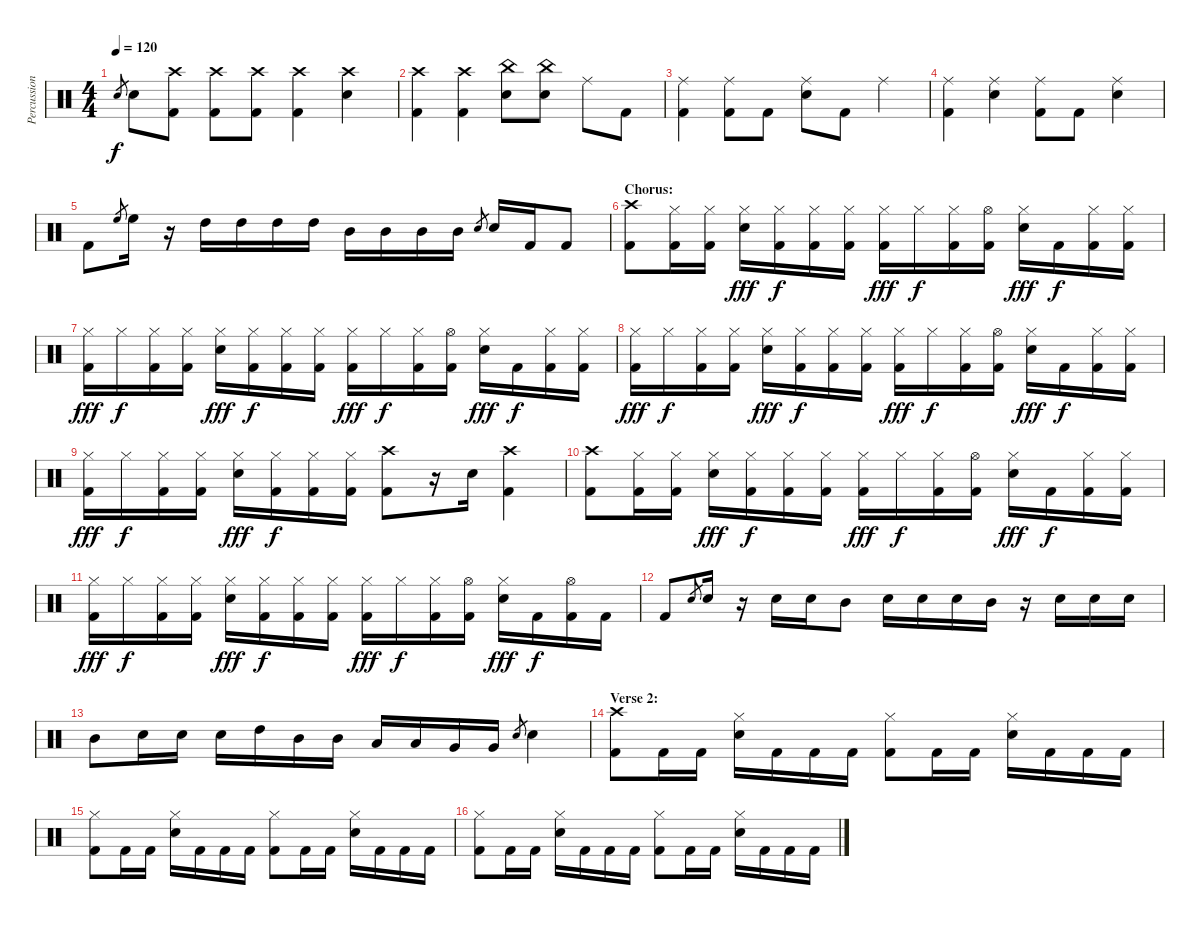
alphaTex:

\track ("Percussion" "Percussion") {instrument percussion}
\staff {score}
\articulation defaults
\ts (4 4)
\tempo 120
\clef neutral
\ks c "Electric Snare (hit)".8{gr dy f} "Electric Snare (hit)".8
("Crash high (hit)" "Kick (hit) 2").8 ("Crash high (hit)" "Kick (hit) 2").8 ("Crash high (hit)" "Kick (hit) 2").8 ("Crash high (hit)" "Kick (hit) 2").4 ("Crash high (hit)" "Electric Snare (hit)").4 |
("Crash high (hit)" "Kick (hit) 2").4 ("Crash high (hit)" "Kick (hit) 2").4 ("China (hit)" "Electric Snare (hit)").8 ("China (hit)" "Electric Snare (hit)").8 "Ride (middle)".8 "Kick (hit) 2".8 |
("Ride (middle)" "Kick (hit) 2").4 ("Ride (middle)" "Kick (hit) 2").8 "Kick (hit) 2".8 ("Ride (middle)" "Electric Snare (hit)").8 "Kick (hit) 2".8 "Ride (middle)".4 |
("Ride (middle)" "Kick (hit) 2").4 ("Ride (middle)" "Electric Snare (hit)").4 ("Ride (middle)" "Kick (hit) 2").8 "Kick (hit) 2".8 ("Ride (middle)" "Electric Snare (hit)").4 |
"Kick (hit) 2".8 "High Floor Tom (hit)".8{gr} "High Floor Tom (hit)".16 r.16 "High Tom (hit)".16 "High Tom (hit)".16 "High Tom (hit)".16 "High Tom (hit)".16 "Mid Tom (hit)".16 "Mid Tom (hit)".16 "Mid Tom (hit)".16 "Mid Tom (hit)".16 "Electric Snare (hit)".8{gr} "Electric Snare (hit)".16 "Kick (hit) 2".16 "Kick (hit) 2".8 |
\section ("" "Chorus:")
("Crash high (hit)" "Kick (hit) 2").8 ("Hi-Hat (closed)" "Kick (hit) 2").16 ("Hi-Hat (closed)" "Kick (hit) 2").16 ("Hi-Hat (closed)" "Electric Snare (hit)").16{dy fff} ("Hi-Hat (closed)" "Kick (hit) 2").16{dy f} ("Hi-Hat (closed)" "Kick (hit) 2").16 ("Hi-Hat (closed)" "Kick (hit) 2").16 ("Hi-Hat (closed)" "Kick (hit) 2").16{dy fff} "Hi-Hat (closed)".16{dy f} ("Hi-Hat (closed)" "Kick (hit) 2").16 ("Hi-Hat (open)" "Kick (hit) 2").16 ("Hi-Hat (closed)" "Electric Snare (hit)").16{dy fff} "Kick (hit) 2".16{dy f} ("Hi-Hat (closed)" "Kick (hit) 2").16 ("Hi-Hat (closed)" "Kick (hit) 2").16 |
("Hi-Hat (closed)" "Kick (hit) 2").16{dy fff} "Hi-Hat (closed)".16{dy f} ("Hi-Hat (closed)" "Kick (hit) 2").16 ("Hi-Hat (closed)" "Kick (hit) 2").16 ("Hi-Hat (closed)" "Electric Snare (hit)").16{dy fff} ("Hi-Hat (closed)" "Kick (hit) 2").16{dy f} ("Hi-Hat (closed)" "Kick (hit) 2").16 ("Hi-Hat (closed)" "Kick (hit) 2").16 ("Hi-Hat (closed)" "Kick (hit) 2").16{dy fff} "Hi-Hat (closed)".16{dy f} ("Hi-Hat (closed)" "Kick (hit) 2").16 ("Hi-Hat (open)" "Kick (hit) 2").16 ("Hi-Hat (closed)" "Electric Snare (hit)").16{dy fff} "Kick (hit) 2".16{dy f} ("Hi-Hat (closed)" "Kick (hit) 2").16 ("Hi-Hat (closed)" "Kick (hit) 2").16 |
("Hi-Hat (closed)" "Kick (hit) 2").16{dy fff} "Hi-Hat (closed)".16{dy f} ("Hi-Hat (closed)" "Kick (hit) 2").16 ("Hi-Hat (closed)" "Kick (hit) 2").16 ("Hi-Hat (closed)" "Electric Snare (hit)").16{dy fff} ("Hi-Hat (closed)" "Kick (hit) 2").16{dy f} ("Hi-Hat (closed)" "Kick (hit) 2").16 ("Hi-Hat (closed)" "Kick (hit) 2").16 ("Hi-Hat (closed)" "Kick (hit) 2").16{dy fff} "Hi-Hat (closed)".16{dy f} ("Hi-Hat (closed)" "Kick (hit) 2").16 ("Hi-Hat (open)" "Kick (hit) 2").16 ("Hi-Hat (closed)" "Electric Snare (hit)").16{dy fff} "Kick (hit) 2".16{dy f} ("Hi-Hat (closed)" "Kick (hit) 2").16 ("Hi-Hat (closed)" "Kick (hit) 2").16 |
("Hi-Hat (closed)" "Kick (hit) 2").16{dy fff} "Hi-Hat (closed)".16{dy f} ("Hi-Hat (closed)" "Kick (hit) 2").16 ("Hi-Hat (closed)" "Kick (hit) 2").16 ("Hi-Hat (closed)" "Electric Snare (hit)").16{dy fff} ("Hi-Hat (closed)" "Kick (hit) 2").16{dy f} ("Hi-Hat (closed)" "Kick (hit) 2").16 ("Hi-Hat (closed)" "Kick (hit) 2").16 ("Crash high (hit)" "Kick (hit) 2").8 r.16 "Electric Snare (hit)".16 ("Crash high (hit)" "Kick (hit) 2").4 |
("Crash high (hit)" "Kick (hit) 2").8 ("Hi-Hat (closed)" "Kick (hit) 2").16 ("Hi-Hat (closed)" "Kick (hit) 2").16 ("Hi-Hat (closed)" "Electric Snare (hit)").16{dy fff} ("Hi-Hat (closed)" "Kick (hit) 2").16{dy f} ("Hi-Hat (closed)" "Kick (hit) 2").16 ("Hi-Hat (closed)" "Kick (hit) 2").16 ("Hi-Hat (closed)" "Kick (hit) 2").16{dy fff} "Hi-Hat (closed)".16{dy f} ("Hi-Hat (closed)" "Kick (hit) 2").16 ("Hi-Hat (open)" "Kick (hit) 2").16 ("Hi-Hat (closed)" "Electric Snare (hit)").16{dy fff} "Kick (hit) 2".16{dy f} ("Hi-Hat (closed)" "Kick (hit) 2").16 ("Hi-Hat (closed)" "Kick (hit) 2").16 |
("Hi-Hat (closed)" "Kick (hit) 2").16{dy fff} "Hi-Hat (closed)".16{dy f} ("Hi-Hat (closed)" "Kick (hit) 2").16 ("Hi-Hat (closed)" "Kick (hit) 2").16 ("Hi-Hat (closed)" "Electric Snare (hit)").16{dy fff} ("Hi-Hat (closed)" "Kick (hit) 2").16{dy f} ("Hi-Hat (closed)" "Kick (hit) 2").16 ("Hi-Hat (closed)" "Kick (hit) 2").16 ("Hi-Hat (closed)" "Kick (hit) 2").16{dy fff} "Hi-Hat (closed)".16{dy f} ("Hi-Hat (closed)" "Kick (hit) 2").16 ("Hi-Hat (open)" "Kick (hit) 2").16 ("Hi-Hat (closed)" "Electric Snare (hit)").16{dy fff} "Kick (hit) 2".16{dy f} ("Hi-Hat (open)" "Kick (hit) 2").16 "Kick (hit) 2".16 |
"Kick (hit) 2".8 "Electric Snare (hit)".8{gr} "Electric Snare (hit)".16 r.16 "Electric Snare (hit)".16 "Electric Snare (hit)".16 "Mid Tom (hit)".8 "Electric Snare (hit)".16 "Electric Snare (hit)".16 "Electric Snare (hit)".16 "Mid Tom (hit)".16 r.16 "Electric Snare (hit)".16 "Electric Snare (hit)".16 "Electric Snare (hit)".16 |
"Mid Tom (hit)".8 "Electric Snare (hit)".16 "Electric Snare (hit)".16 "Electric Snare (hit)".16 "High Tom (hit)".16 "Mid Tom (hit)".16 "Mid Tom (hit)".16 "Low Tom (hit)".16 "Low Tom (hit)".16 "Very Low Tom (hit)".16 "Very Low Tom (hit)".16 "Electric Snare (hit)".8{gr} "Electric Snare (hit)".4 |
\section ("" "Verse 2:")
("Crash high (hit)" "Kick (hit) 2").8 "Kick (hit) 2".16 "Kick (hit) 2".16 ("Hi-Hat (closed)" "Electric Snare (hit)").16 "Kick (hit) 2".16 "Kick (hit) 2".16 "Kick (hit) 2".16 ("Hi-Hat (closed)" "Kick (hit) 2").8 "Kick (hit) 2".16 "Kick (hit) 2".16 ("Hi-Hat (closed)" "Electric Snare (hit)").16 "Kick (hit) 2".16 "Kick (hit) 2".16 "Kick (hit) 2".16 |
("Hi-Hat (closed)" "Kick (hit) 2").8 "Kick (hit) 2".16 "Kick (hit) 2".16 ("Hi-Hat (closed)" "Electric Snare (hit)").16 "Kick (hit) 2".16 "Kick (hit) 2".16 "Kick (hit) 2".16 ("Hi-Hat (closed)" "Kick (hit) 2").8 "Kick (hit) 2".16 "Kick (hit) 2".16 ("Hi-Hat (closed)" "Electric Snare (hit)").16 "Kick (hit) 2".16 "Kick (hit) 2".16 "Kick (hit) 2".16 |
("Hi-Hat (closed)" "Kick (hit) 2").8 "Kick (hit) 2".16 "Kick (hit) 2".16 ("Hi-Hat (closed)" "Electric Snare (hit)").16 "Kick (hit) 2".16 "Kick (hit) 2".16 "Kick (hit) 2".16 ("Hi-Hat (closed)" "Kick (hit) 2").8 "Kick (hit) 2".16 "Kick (hit) 2".16 ("Hi-Hat (closed)" "Electric Snare (hit)").16 "Kick (hit) 2".16 "Kick (hit) 2".16 "Kick (hit) 2".16
